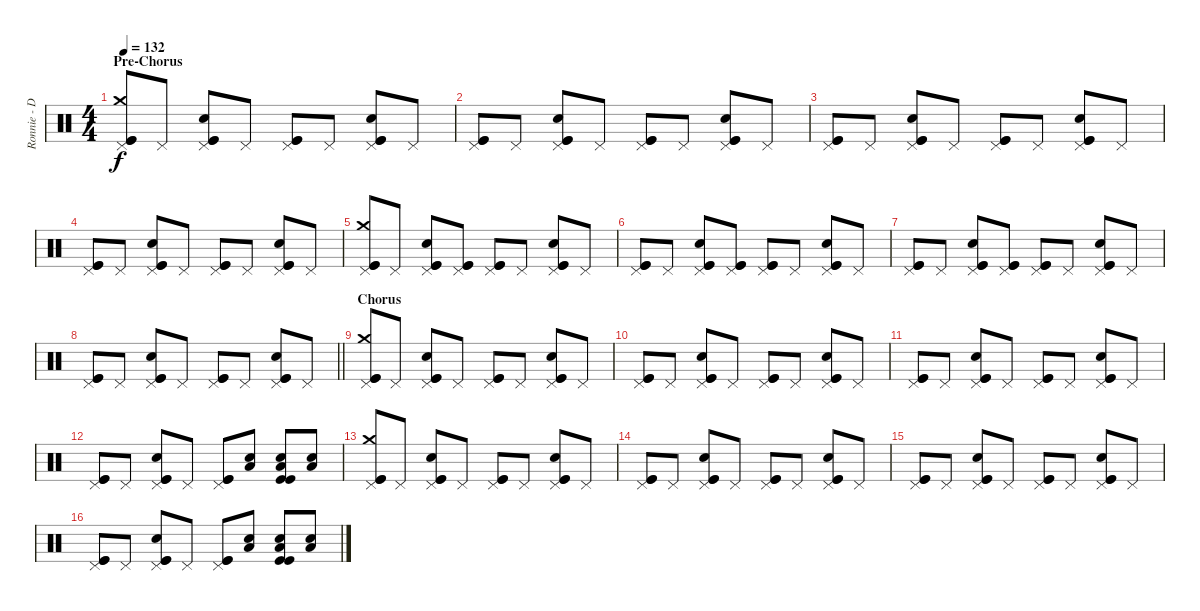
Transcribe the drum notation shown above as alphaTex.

\track ("Ronnie - Drums" "Ronnie - D") {instrument percussion}
\staff {score}
\articulation defaults
\ts (4 4)
\section ("" "Pre-Chorus")
\tempo 132
\clef neutral
\ks c
("Pedal Hi-Hat (hit)" "Crash medium (hit)" "Kick (hit)" "Kick (hit)").8{dy f} "Pedal Hi-Hat (hit)".8 ("Pedal Hi-Hat (hit)" "Electric Snare (hit)" "Kick (hit)" "Kick (hit)").8 "Pedal Hi-Hat (hit)".8 ("Pedal Hi-Hat (hit)" "Kick (hit)" "Kick (hit)").8 "Pedal Hi-Hat (hit)".8 ("Pedal Hi-Hat (hit)" "Electric Snare (hit)" "Kick (hit)" "Kick (hit)").8 "Pedal Hi-Hat (hit)".8 |
("Pedal Hi-Hat (hit)" "Kick (hit)" "Kick (hit)").8 "Pedal Hi-Hat (hit)".8 ("Pedal Hi-Hat (hit)" "Electric Snare (hit)" "Kick (hit)" "Kick (hit)").8 "Pedal Hi-Hat (hit)".8 ("Pedal Hi-Hat (hit)" "Kick (hit)" "Kick (hit)").8 "Pedal Hi-Hat (hit)".8 ("Pedal Hi-Hat (hit)" "Electric Snare (hit)" "Kick (hit)" "Kick (hit)").8 "Pedal Hi-Hat (hit)".8 |
("Pedal Hi-Hat (hit)" "Kick (hit)" "Kick (hit)").8 "Pedal Hi-Hat (hit)".8 ("Pedal Hi-Hat (hit)" "Electric Snare (hit)" "Kick (hit)" "Kick (hit)").8 "Pedal Hi-Hat (hit)".8 ("Pedal Hi-Hat (hit)" "Kick (hit)" "Kick (hit)").8 "Pedal Hi-Hat (hit)".8 ("Pedal Hi-Hat (hit)" "Electric Snare (hit)" "Kick (hit)" "Kick (hit)").8 "Pedal Hi-Hat (hit)".8 |
("Pedal Hi-Hat (hit)" "Kick (hit)" "Kick (hit)").8 "Pedal Hi-Hat (hit)".8 ("Pedal Hi-Hat (hit)" "Electric Snare (hit)" "Kick (hit)" "Kick (hit)").8 "Pedal Hi-Hat (hit)".8 ("Pedal Hi-Hat (hit)" "Kick (hit)" "Kick (hit)").8 "Pedal Hi-Hat (hit)".8 ("Pedal Hi-Hat (hit)" "Electric Snare (hit)" "Kick (hit)" "Kick (hit)").8 "Pedal Hi-Hat (hit)".8 |
("Pedal Hi-Hat (hit)" "Crash medium (hit)" "Kick (hit)" "Kick (hit)").8 "Pedal Hi-Hat (hit)".8 ("Pedal Hi-Hat (hit)" "Electric Snare (hit)" "Kick (hit)" "Kick (hit)").8 ("Pedal Hi-Hat (hit)" "Kick (hit)" "Kick (hit)").8 ("Pedal Hi-Hat (hit)" "Kick (hit)" "Kick (hit)").8 "Pedal Hi-Hat (hit)".8 ("Pedal Hi-Hat (hit)" "Electric Snare (hit)" "Kick (hit)" "Kick (hit)").8 "Pedal Hi-Hat (hit)".8 |
("Pedal Hi-Hat (hit)" "Kick (hit)" "Kick (hit)").8 "Pedal Hi-Hat (hit)".8 ("Pedal Hi-Hat (hit)" "Electric Snare (hit)" "Kick (hit)" "Kick (hit)").8 ("Pedal Hi-Hat (hit)" "Kick (hit)" "Kick (hit)").8 ("Pedal Hi-Hat (hit)" "Kick (hit)" "Kick (hit)").8 "Pedal Hi-Hat (hit)".8 ("Pedal Hi-Hat (hit)" "Electric Snare (hit)" "Kick (hit)" "Kick (hit)").8 "Pedal Hi-Hat (hit)".8 |
("Pedal Hi-Hat (hit)" "Kick (hit)" "Kick (hit)").8 "Pedal Hi-Hat (hit)".8 ("Pedal Hi-Hat (hit)" "Electric Snare (hit)" "Kick (hit)" "Kick (hit)").8 ("Pedal Hi-Hat (hit)" "Kick (hit)" "Kick (hit)").8 ("Pedal Hi-Hat (hit)" "Kick (hit)" "Kick (hit)").8 "Pedal Hi-Hat (hit)".8 ("Pedal Hi-Hat (hit)" "Electric Snare (hit)" "Kick (hit)" "Kick (hit)").8 "Pedal Hi-Hat (hit)".8 |
\barLineRight lightlight
("Pedal Hi-Hat (hit)" "Kick (hit)" "Kick (hit)").8 "Pedal Hi-Hat (hit)".8 ("Pedal Hi-Hat (hit)" "Electric Snare (hit)" "Kick (hit)" "Kick (hit)").8 "Pedal Hi-Hat (hit)".8 ("Pedal Hi-Hat (hit)" "Kick (hit)" "Kick (hit)").8 "Pedal Hi-Hat (hit)".8 ("Pedal Hi-Hat (hit)" "Electric Snare (hit)" "Kick (hit)" "Kick (hit)").8 "Pedal Hi-Hat (hit)".8 |
\section ("" "Chorus")
("Pedal Hi-Hat (hit)" "Crash medium (hit)" "Kick (hit)" "Kick (hit)").8 "Pedal Hi-Hat (hit)".8 ("Pedal Hi-Hat (hit)" "Electric Snare (hit)" "Kick (hit)" "Kick (hit)").8 "Pedal Hi-Hat (hit)".8 ("Pedal Hi-Hat (hit)" "Kick (hit)" "Kick (hit)").8 "Pedal Hi-Hat (hit)".8 ("Pedal Hi-Hat (hit)" "Electric Snare (hit)" "Kick (hit)" "Kick (hit)").8 "Pedal Hi-Hat (hit)".8 |
("Pedal Hi-Hat (hit)" "Kick (hit)" "Kick (hit)").8 "Pedal Hi-Hat (hit)".8 ("Pedal Hi-Hat (hit)" "Electric Snare (hit)" "Kick (hit)" "Kick (hit)").8 "Pedal Hi-Hat (hit)".8 ("Pedal Hi-Hat (hit)" "Kick (hit)" "Kick (hit)").8 "Pedal Hi-Hat (hit)".8 ("Pedal Hi-Hat (hit)" "Electric Snare (hit)" "Kick (hit)" "Kick (hit)").8 "Pedal Hi-Hat (hit)".8 |
("Pedal Hi-Hat (hit)" "Kick (hit)" "Kick (hit)").8 "Pedal Hi-Hat (hit)".8 ("Pedal Hi-Hat (hit)" "Electric Snare (hit)" "Kick (hit)" "Kick (hit)").8 "Pedal Hi-Hat (hit)".8 ("Pedal Hi-Hat (hit)" "Kick (hit)" "Kick (hit)").8 "Pedal Hi-Hat (hit)".8 ("Pedal Hi-Hat (hit)" "Electric Snare (hit)" "Kick (hit)" "Kick (hit)").8 "Pedal Hi-Hat (hit)".8 |
("Pedal Hi-Hat (hit)" "Kick (hit)" "Kick (hit)").8 "Pedal Hi-Hat (hit)".8 ("Pedal Hi-Hat (hit)" "Electric Snare (hit)" "Kick (hit)" "Kick (hit)").8 "Pedal Hi-Hat (hit)".8 ("Pedal Hi-Hat (hit)" "Kick (hit)" "Kick (hit)").8 ("Low Floor Tom (hit)" "Electric Snare (hit)").8 ("Low Floor Tom (hit)" "Electric Snare (hit)" "Kick (hit)" "Kick (hit)").8 ("Low Floor Tom (hit)" "Electric Snare (hit)").8 |
("Pedal Hi-Hat (hit)" "Crash medium (hit)" "Kick (hit)" "Kick (hit)").8 "Pedal Hi-Hat (hit)".8 ("Pedal Hi-Hat (hit)" "Electric Snare (hit)" "Kick (hit)" "Kick (hit)").8 "Pedal Hi-Hat (hit)".8 ("Pedal Hi-Hat (hit)" "Kick (hit)" "Kick (hit)").8 "Pedal Hi-Hat (hit)".8 ("Pedal Hi-Hat (hit)" "Electric Snare (hit)" "Kick (hit)" "Kick (hit)").8 "Pedal Hi-Hat (hit)".8 |
("Pedal Hi-Hat (hit)" "Kick (hit)" "Kick (hit)").8 "Pedal Hi-Hat (hit)".8 ("Pedal Hi-Hat (hit)" "Electric Snare (hit)" "Kick (hit)" "Kick (hit)").8 "Pedal Hi-Hat (hit)".8 ("Pedal Hi-Hat (hit)" "Kick (hit)" "Kick (hit)").8 "Pedal Hi-Hat (hit)".8 ("Pedal Hi-Hat (hit)" "Electric Snare (hit)" "Kick (hit)" "Kick (hit)").8 "Pedal Hi-Hat (hit)".8 |
("Pedal Hi-Hat (hit)" "Kick (hit)" "Kick (hit)").8 "Pedal Hi-Hat (hit)".8 ("Pedal Hi-Hat (hit)" "Electric Snare (hit)" "Kick (hit)" "Kick (hit)").8 "Pedal Hi-Hat (hit)".8 ("Pedal Hi-Hat (hit)" "Kick (hit)" "Kick (hit)").8 "Pedal Hi-Hat (hit)".8 ("Pedal Hi-Hat (hit)" "Electric Snare (hit)" "Kick (hit)" "Kick (hit)").8 "Pedal Hi-Hat (hit)".8 |
("Pedal Hi-Hat (hit)" "Kick (hit)" "Kick (hit)").8 "Pedal Hi-Hat (hit)".8 ("Pedal Hi-Hat (hit)" "Electric Snare (hit)" "Kick (hit)" "Kick (hit)").8 "Pedal Hi-Hat (hit)".8 ("Pedal Hi-Hat (hit)" "Kick (hit)" "Kick (hit)").8 ("Low Floor Tom (hit)" "Electric Snare (hit)").8 ("Low Floor Tom (hit)" "Electric Snare (hit)" "Kick (hit)" "Kick (hit)").8 ("Low Floor Tom (hit)" "Electric Snare (hit)").8
